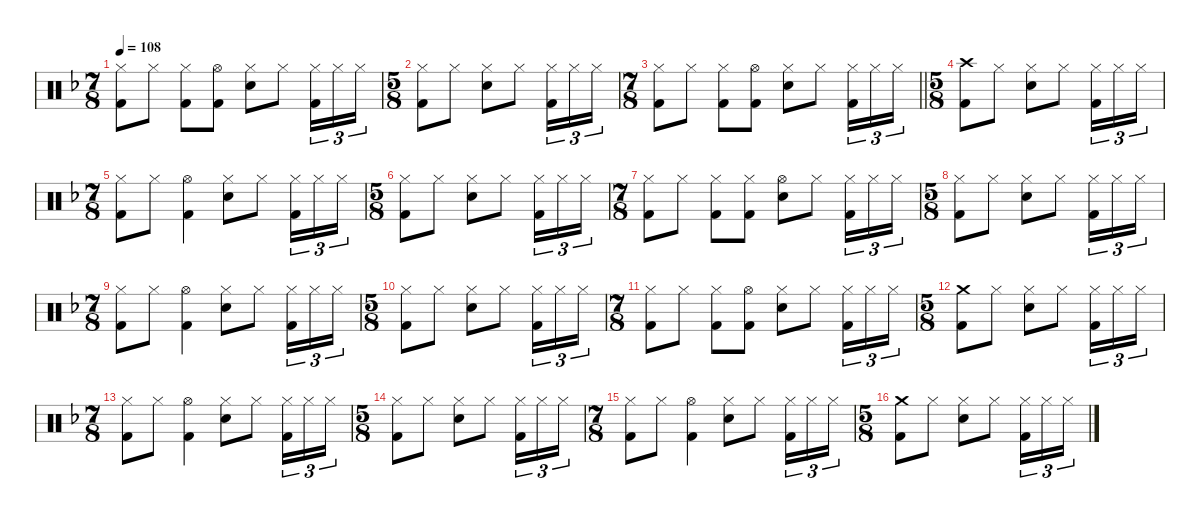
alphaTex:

\defaultSystemsLayout 4
\hideDynamics
\bracketExtendMode nobrackets
\singleTrackTrackNamePolicy hidden
\multiTrackTrackNamePolicy hidden
\firstSystemTrackNameMode fullname
\firstSystemTrackNameOrientation horizontal
\otherSystemsTrackNameOrientation horizontal
\track ("Danny Carey" "drm.") {defaultSystemsLayout 4 instrument percussion}
\staff {score}
\articulation defaults
\ts (7 8)
\beaming (8 2 2 2 2)
\tempo 108
\clef neutral
\ks dminor
("Hi-Hat (closed)"{acc forcenatural} "Kick (hit) 2"{acc forcenatural}).8{dy f beam Down} "Hi-Hat (closed)"{acc forcenatural}.8{beam Down} ("Hi-Hat (closed)"{acc forcenatural} "Kick (hit) 2"{acc forcenatural}).8{beam Down} ("Hi-Hat (open)"{acc forcenatural} "Kick (hit) 2"{acc forcenatural}).8{beam Down} ("Hi-Hat (closed)"{acc forcenatural} "Snare (hit) 2"{acc forcenatural}).8{beam Down} "Hi-Hat (closed)"{acc forcenatural}.8{beam Down} ("Hi-Hat (closed)"{acc forcenatural} "Kick (hit) 2"{acc forcenatural}).16{tu (3 2) beam Down} "Hi-Hat (closed)"{acc forcenatural}.16{tu (3 2) beam Down} "Hi-Hat (closed)"{acc forcenatural}.16{tu (3 2) beam Down} |
\ts (5 8)
\beaming (8 2 2 2 2)
("Hi-Hat (closed)"{acc forcenatural} "Kick (hit) 2"{acc forcenatural}).8{beam Down} "Hi-Hat (closed)"{acc forcenatural}.8{beam Down} ("Hi-Hat (closed)"{acc forcenatural} "Snare (hit) 2"{acc forcenatural}).8{beam Down} "Hi-Hat (closed)"{acc forcenatural}.8{beam Down} ("Hi-Hat (closed)"{acc forcenatural} "Kick (hit) 2"{acc forcenatural}).16{tu (3 2) beam Down} "Hi-Hat (closed)"{acc forcenatural}.16{tu (3 2) beam Down} "Hi-Hat (closed)"{acc forcenatural}.16{tu (3 2) beam Down} |
\ts (7 8)
\beaming (8 2 2 2 2)
\barLineRight lightlight
("Hi-Hat (closed)"{acc forcenatural} "Kick (hit) 2"{acc forcenatural}).8{beam Down} "Hi-Hat (closed)"{acc forcenatural}.8{beam Down} ("Hi-Hat (closed)"{acc forcenatural} "Kick (hit) 2"{acc forcenatural}).8{beam Down} ("Hi-Hat (open)"{acc forcenatural} "Kick (hit) 2"{acc forcenatural}).8{beam Down} ("Hi-Hat (closed)"{acc forcenatural} "Snare (hit) 2"{acc forcenatural}).8{beam Down} "Hi-Hat (closed)"{acc forcenatural}.8{beam Down} ("Hi-Hat (closed)"{acc forcenatural} "Kick (hit) 2"{acc forcenatural}).16{tu (3 2) beam Down} "Hi-Hat (closed)"{acc forcenatural}.16{tu (3 2) beam Down} "Hi-Hat (closed)"{acc forcenatural}.16{tu (3 2) beam Down} |
\ts (5 8)
\beaming (8 2 2 2 2)
("Crash high (hit)"{acc forcenatural} "Kick (hit) 2"{acc forcenatural}).8{beam Down} "Hi-Hat (closed)"{acc forcenatural}.8{beam Down} ("Hi-Hat (closed)"{acc forcenatural} "Snare (hit) 2"{acc forcenatural}).8{beam Down} "Hi-Hat (closed)"{acc forcenatural}.8{beam Down} ("Hi-Hat (closed)"{acc forcenatural} "Kick (hit) 2"{acc forcenatural}).16{tu (3 2) beam Down} "Hi-Hat (closed)"{acc forcenatural}.16{tu (3 2) beam Down} "Hi-Hat (closed)"{acc forcenatural}.16{tu (3 2) beam Down} |
\ts (7 8)
\beaming (8 2 2 2 2)
("Hi-Hat (closed)"{acc forcenatural} "Kick (hit) 2"{acc forcenatural}).8{beam Down} "Hi-Hat (closed)"{acc forcenatural}.8{beam Down} ("Hi-Hat (open)"{acc forcenatural} "Kick (hit) 2"{acc forcenatural}).4{beam Down} ("Hi-Hat (closed)"{acc forcenatural} "Snare (hit) 2"{acc forcenatural}).8{beam Down} "Hi-Hat (closed)"{acc forcenatural}.8{beam Down} ("Hi-Hat (closed)"{acc forcenatural} "Kick (hit) 2"{acc forcenatural}).16{tu (3 2) beam Down} "Hi-Hat (closed)"{acc forcenatural}.16{tu (3 2) beam Down} "Hi-Hat (closed)"{acc forcenatural}.16{tu (3 2) beam Down} |
\ts (5 8)
\beaming (8 2 2 2 2)
("Hi-Hat (closed)"{acc forcenatural} "Kick (hit) 2"{acc forcenatural}).8{beam Down} "Hi-Hat (closed)"{acc forcenatural}.8{beam Down} ("Hi-Hat (closed)"{acc forcenatural} "Snare (hit) 2"{acc forcenatural}).8{beam Down} "Hi-Hat (closed)"{acc forcenatural}.8{beam Down} ("Hi-Hat (closed)"{acc forcenatural} "Kick (hit) 2"{acc forcenatural}).16{tu (3 2) beam Down} "Hi-Hat (closed)"{acc forcenatural}.16{tu (3 2) beam Down} "Hi-Hat (closed)"{acc forcenatural}.16{tu (3 2) beam Down} |
\ts (7 8)
\beaming (8 2 2 2 2)
("Hi-Hat (closed)"{acc forcenatural} "Kick (hit) 2"{acc forcenatural}).8{beam Down} "Hi-Hat (closed)"{acc forcenatural}.8{beam Down} ("Hi-Hat (closed)"{acc forcenatural} "Kick (hit) 2"{acc forcenatural}).8{beam Down} ("Hi-Hat (closed)"{acc forcenatural} "Kick (hit) 2"{acc forcenatural}).8{beam Down} ("Hi-Hat (open)"{acc forcenatural} "Snare (hit) 2"{acc forcenatural}).8{beam Down} "Hi-Hat (closed)"{acc forcenatural}.8{beam Down} ("Hi-Hat (closed)"{acc forcenatural} "Kick (hit) 2"{acc forcenatural}).16{tu (3 2) beam Down} "Hi-Hat (closed)"{acc forcenatural}.16{tu (3 2) beam Down} "Hi-Hat (closed)"{acc forcenatural}.16{tu (3 2) beam Down} |
\ts (5 8)
\beaming (8 2 2 2 2)
("Hi-Hat (closed)"{acc forcenatural} "Kick (hit) 2"{acc forcenatural}).8{beam Down} "Hi-Hat (closed)"{acc forcenatural}.8{beam Down} ("Hi-Hat (closed)"{acc forcenatural} "Snare (hit) 2"{acc forcenatural}).8{beam Down} "Hi-Hat (closed)"{acc forcenatural}.8{beam Down} ("Hi-Hat (closed)"{acc forcenatural} "Kick (hit) 2"{acc forcenatural}).16{tu (3 2) beam Down} "Hi-Hat (closed)"{acc forcenatural}.16{tu (3 2) beam Down} "Hi-Hat (closed)"{acc forcenatural}.16{tu (3 2) beam Down} |
\ts (7 8)
\beaming (8 2 2 2 2)
("Hi-Hat (closed)"{acc forcenatural} "Kick (hit) 2"{acc forcenatural}).8{beam Down} "Hi-Hat (closed)"{acc forcenatural}.8{beam Down} ("Hi-Hat (open)"{acc forcenatural} "Kick (hit) 2"{acc forcenatural}).4{beam Down} ("Hi-Hat (closed)"{acc forcenatural} "Snare (hit) 2"{acc forcenatural}).8{beam Down} "Hi-Hat (closed)"{acc forcenatural}.8{beam Down} ("Hi-Hat (closed)"{acc forcenatural} "Kick (hit) 2"{acc forcenatural}).16{tu (3 2) beam Down} "Hi-Hat (closed)"{acc forcenatural}.16{tu (3 2) beam Down} "Hi-Hat (closed)"{acc forcenatural}.16{tu (3 2) beam Down} |
\ts (5 8)
\beaming (8 2 2 2 2)
("Hi-Hat (closed)"{acc forcenatural} "Kick (hit) 2"{acc forcenatural}).8{beam Down} "Hi-Hat (closed)"{acc forcenatural}.8{beam Down} ("Hi-Hat (closed)"{acc forcenatural} "Snare (hit) 2"{acc forcenatural}).8{beam Down} "Hi-Hat (closed)"{acc forcenatural}.8{beam Down} ("Hi-Hat (closed)"{acc forcenatural} "Kick (hit) 2"{acc forcenatural}).16{tu (3 2) beam Down} "Hi-Hat (closed)"{acc forcenatural}.16{tu (3 2) beam Down} "Hi-Hat (closed)"{acc forcenatural}.16{tu (3 2) beam Down} |
\ts (7 8)
\beaming (8 2 2 2 2)
("Hi-Hat (closed)"{acc forcenatural} "Kick (hit) 2"{acc forcenatural}).8{beam Down} "Hi-Hat (closed)"{acc forcenatural}.8{beam Down} ("Hi-Hat (closed)"{acc forcenatural} "Kick (hit) 2"{acc forcenatural}).8{beam Down} ("Hi-Hat (open)"{acc forcenatural} "Kick (hit) 2"{acc forcenatural}).8{beam Down} ("Hi-Hat (closed)"{acc forcenatural} "Snare (hit) 2"{acc forcenatural}).8{beam Down} "Hi-Hat (closed)"{acc forcenatural}.8{beam Down} ("Hi-Hat (closed)"{acc forcenatural} "Kick (hit) 2"{acc forcenatural}).16{tu (3 2) beam Down} "Hi-Hat (closed)"{acc forcenatural}.16{tu (3 2) beam Down} "Hi-Hat (closed)"{acc forcenatural}.16{tu (3 2) beam Down} |
\ts (5 8)
\beaming (8 2 2 2 2)
("Crash medium (hit)"{acc forcenatural} "Kick (hit) 2"{acc forcenatural}).8{beam Down} "Hi-Hat (closed)"{acc forcenatural}.8{beam Down} ("Hi-Hat (closed)"{acc forcenatural} "Snare (hit) 2"{acc forcenatural}).8{beam Down} "Hi-Hat (closed)"{acc forcenatural}.8{beam Down} ("Hi-Hat (closed)"{acc forcenatural} "Kick (hit) 2"{acc forcenatural}).16{tu (3 2) beam Down} "Hi-Hat (closed)"{acc forcenatural}.16{tu (3 2) beam Down} "Hi-Hat (closed)"{acc forcenatural}.16{tu (3 2) beam Down} |
\ts (7 8)
\beaming (8 2 2 2 2)
("Hi-Hat (closed)"{acc forcenatural} "Kick (hit) 2"{acc forcenatural}).8{beam Down} "Hi-Hat (closed)"{acc forcenatural}.8{beam Down} ("Hi-Hat (open)"{acc forcenatural} "Kick (hit) 2"{acc forcenatural}).4{beam Down} ("Hi-Hat (closed)"{acc forcenatural} "Snare (hit) 2"{acc forcenatural}).8{beam Down} "Hi-Hat (closed)"{acc forcenatural}.8{beam Down} ("Hi-Hat (closed)"{acc forcenatural} "Kick (hit) 2"{acc forcenatural}).16{tu (3 2) beam Down} "Hi-Hat (closed)"{acc forcenatural}.16{tu (3 2) beam Down} "Hi-Hat (closed)"{acc forcenatural}.16{tu (3 2) beam Down} |
\ts (5 8)
\beaming (8 2 2 2 2)
("Hi-Hat (closed)"{acc forcenatural} "Kick (hit) 2"{acc forcenatural}).8{beam Down} "Hi-Hat (closed)"{acc forcenatural}.8{beam Down} ("Hi-Hat (closed)"{acc forcenatural} "Snare (hit) 2"{acc forcenatural}).8{beam Down} "Hi-Hat (closed)"{acc forcenatural}.8{beam Down} ("Hi-Hat (closed)"{acc forcenatural} "Kick (hit) 2"{acc forcenatural}).16{tu (3 2) beam Down} "Hi-Hat (closed)"{acc forcenatural}.16{tu (3 2) beam Down} "Hi-Hat (closed)"{acc forcenatural}.16{tu (3 2) beam Down} |
\ts (7 8)
\beaming (8 2 2 2 2)
("Hi-Hat (closed)"{acc forcenatural} "Kick (hit) 2"{acc forcenatural}).8{beam Down} "Hi-Hat (closed)"{acc forcenatural}.8{beam Down} ("Hi-Hat (open)"{acc forcenatural} "Kick (hit) 2"{acc forcenatural}).4{beam Down} ("Hi-Hat (closed)"{acc forcenatural} "Snare (hit) 2"{acc forcenatural}).8{beam Down} "Hi-Hat (closed)"{acc forcenatural}.8{beam Down} ("Hi-Hat (closed)"{acc forcenatural} "Kick (hit) 2"{acc forcenatural}).16{tu (3 2) beam Down} "Hi-Hat (closed)"{acc forcenatural}.16{tu (3 2) beam Down} "Hi-Hat (closed)"{acc forcenatural}.16{tu (3 2) beam Down} |
\ts (5 8)
\beaming (8 2 2 2 2)
("Crash medium (hit)"{acc forcenatural} "Kick (hit) 2"{acc forcenatural}).8{beam Down} "Hi-Hat (closed)"{acc forcenatural}.8{beam Down} ("Hi-Hat (closed)"{acc forcenatural} "Snare (hit) 2"{acc forcenatural}).8{beam Down} "Hi-Hat (closed)"{acc forcenatural}.8{beam Down} ("Hi-Hat (closed)"{acc forcenatural} "Kick (hit) 2"{acc forcenatural}).16{tu (3 2) beam Down} "Hi-Hat (closed)"{acc forcenatural}.16{tu (3 2) beam Down} "Hi-Hat (closed)"{acc forcenatural}.16{tu (3 2) beam Down}
